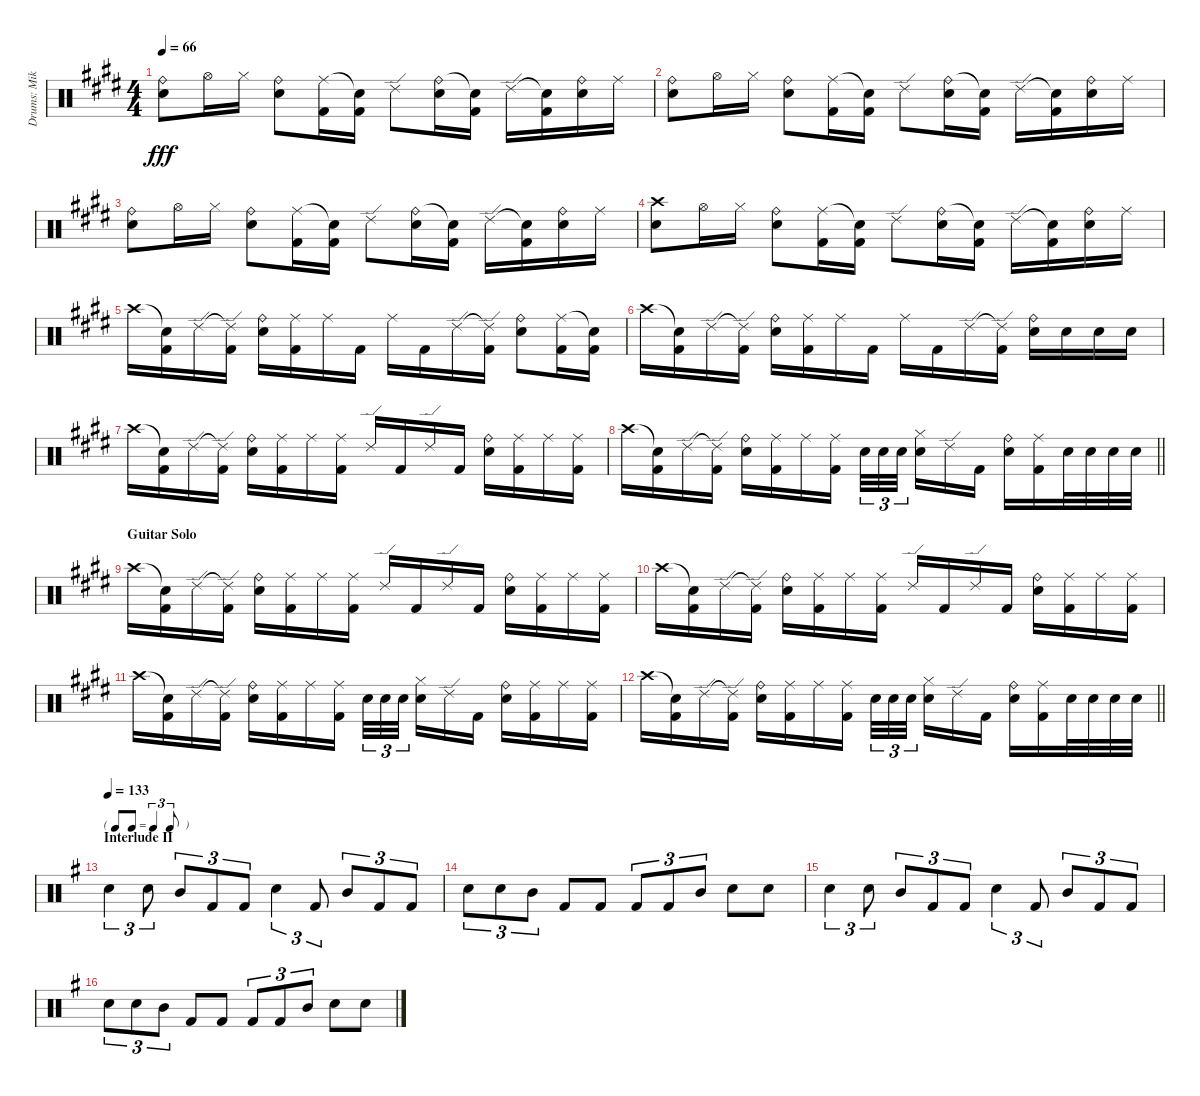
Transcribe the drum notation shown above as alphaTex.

\track ("Drums: Mike" "Drums: Mik") {instrument percussion}
\staff {score}
\articulation defaults
\ts (4 4)
\tempo 66
\clef neutral
\ks e
("Ride (bell)" "Electric Snare (hit)").8{dy fff} "Hi-Hat (open)".16 "Hi-Hat (closed)".16 ("Ride (bell)" "Electric Snare (hit)").8 ("Ride (middle)" "Kick (hit) 2").16 ("Snare (hit)"{t} "Kick (hit) 2").16 "Ride (edge) 2".8 ("Ride (bell)" "Electric Snare (hit)").16 ("Snare (hit)"{t} "Kick (hit) 2").16 "Ride (edge) 2".16 ("Snare (hit)"{t} "Kick (hit) 2").16 ("Ride (bell)" "Electric Snare (hit)").16 "Ride (middle)".16 |
("Ride (bell)" "Electric Snare (hit)").8 "Hi-Hat (open)".16 "Hi-Hat (closed)".16 ("Ride (bell)" "Electric Snare (hit)").8 ("Ride (middle)" "Kick (hit) 2").16 ("Snare (hit)"{t} "Kick (hit) 2").16 "Ride (edge) 2".8 ("Ride (bell)" "Electric Snare (hit)").16 ("Snare (hit)"{t} "Kick (hit) 2").16 "Ride (edge) 2".16 ("Snare (hit)"{t} "Kick (hit) 2").16 ("Ride (bell)" "Electric Snare (hit)").16 "Ride (middle)".16 |
("Ride (bell)" "Electric Snare (hit)").8 "Hi-Hat (open)".16 "Hi-Hat (closed)".16 ("Ride (bell)" "Electric Snare (hit)").8 ("Ride (middle)" "Kick (hit) 2").16 ("Snare (hit)"{t} "Kick (hit) 2").16 "Ride (edge) 2".8 ("Ride (bell)" "Electric Snare (hit)").16 ("Snare (hit)"{t} "Kick (hit) 2").16 "Ride (edge) 2".16 ("Snare (hit)"{t} "Kick (hit) 2").16 ("Ride (bell)" "Electric Snare (hit)").16 "Ride (middle)".16 |
("Crash high (hit)" "Electric Snare (hit)").8 "Hi-Hat (open)".16 "Hi-Hat (closed)".16 ("Ride (bell)" "Electric Snare (hit)").8 ("Ride (middle)" "Kick (hit) 2").16 ("Snare (hit)"{t} "Kick (hit) 2").16 "Ride (edge) 2".8 ("Ride (bell)" "Electric Snare (hit)").16 ("Snare (hit)"{t} "Kick (hit) 2").16 "Ride (edge) 2".16 ("Snare (hit)"{t} "Kick (hit) 2").16 ("Ride (bell)" "Electric Snare (hit)").16 "Ride (middle)".16 |
"Crash high (hit)".16 ("Snare (hit)"{t} "Kick (hit) 2").16 "Ride (edge) 2".16 ("Ride (edge) 2"{t} "Kick (hit) 2").16 ("Ride (bell)" "Electric Snare (hit)").16 ("Ride (middle)" "Kick (hit) 2").16 "Ride (middle)".16 "Kick (hit) 2".16 "Ride (middle)".16 "Kick (hit) 2".16 "Ride (edge) 2".16 ("Ride (edge) 2"{t} "Kick (hit) 2").16 ("Ride (bell)" "Electric Snare (hit)").8 ("Ride (middle)" "Kick (hit) 2").16 ("Snare (hit)"{t} "Kick (hit) 2").16 |
"Crash high (hit)".16 ("Snare (hit)"{t} "Kick (hit) 2").16 "Ride (edge) 2".16 ("Ride (edge) 2"{t} "Kick (hit) 2").16 ("Ride (bell)" "Electric Snare (hit)").16 ("Ride (middle)" "Kick (hit) 2").16 "Ride (middle)".16 "Kick (hit) 2".16 "Ride (middle)".16 "Kick (hit) 2".16 "Ride (edge) 2".16 ("Ride (edge) 2"{t} "Kick (hit) 2").16 ("Ride (bell)" "Electric Snare (hit)").16 "Electric Snare (hit)".16 "Electric Snare (hit)".16 "Electric Snare (hit)".16 |
"Crash high (hit)".16 ("Snare (hit)"{t} "Kick (hit) 2").16 "Ride (edge) 2".16 ("Ride (edge) 2"{t} "Kick (hit) 2").16 ("Ride (bell)" "Electric Snare (hit)").16 ("Ride (middle)" "Kick (hit) 2").16 "Ride (middle)".16 ("Ride (middle)" "Kick (hit) 2").16 "Ride (edge) 2".16 "Kick (hit) 2".16 "Ride (edge) 2".16 "Kick (hit) 2".16 ("Ride (bell)" "Electric Snare (hit)").16 ("Ride (middle)" "Kick (hit) 2").16 "Ride (middle)".16 ("Ride (middle)" "Kick (hit) 2").16 |
\barLineRight lightlight "Crash high (hit)".16
("Snare (hit)"{t} "Kick (hit) 2").16 "Ride (edge) 2".16 ("Ride (edge) 2"{t} "Kick (hit) 2").16 ("Ride (bell)" "Electric Snare (hit)").16 ("Ride (middle)" "Kick (hit) 2").16 "Ride (middle)".16 ("Ride (middle)" "Kick (hit) 2").16 "Electric Snare (hit)".32{tu (3 2)} "Electric Snare (hit)".32{tu (3 2)} "Electric Snare (hit)".32{tu (3 2) beam splitsecondary} ("Hi-Hat (closed)" "Electric Snare (hit)").16 "Ride (edge) 2".16 "Kick (hit) 2".16 ("Ride (bell)" "Electric Snare (hit)").16 ("Ride (middle)" "Kick (hit) 2").16 "Electric Snare (hit)".32 "Electric Snare (hit)".32 "Electric Snare (hit)".32 "Electric Snare (hit)".32 |
\section ("" "Guitar Solo")
"Crash high (hit)".16 ("Snare (hit)"{t} "Kick (hit) 2").16 "Ride (edge) 2".16 ("Ride (edge) 2"{t} "Kick (hit) 2").16 ("Ride (bell)" "Electric Snare (hit)").16 ("Ride (middle)" "Kick (hit) 2").16 "Ride (middle)".16 ("Ride (middle)" "Kick (hit) 2").16 "Ride (edge) 2".16 "Kick (hit) 2".16 "Ride (edge) 2".16 "Kick (hit) 2".16 ("Ride (bell)" "Electric Snare (hit)").16 ("Ride (middle)" "Kick (hit) 2").16 "Ride (middle)".16 ("Ride (middle)" "Kick (hit) 2").16 |
"Crash high (hit)".16 ("Snare (hit)"{t} "Kick (hit) 2").16 "Ride (edge) 2".16 ("Ride (edge) 2"{t} "Kick (hit) 2").16 ("Ride (bell)" "Electric Snare (hit)").16 ("Ride (middle)" "Kick (hit) 2").16 "Ride (middle)".16 ("Ride (middle)" "Kick (hit) 2").16 "Ride (edge) 2".16 "Kick (hit) 2".16 "Ride (edge) 2".16 "Kick (hit) 2".16 ("Ride (bell)" "Electric Snare (hit)").16 ("Ride (middle)" "Kick (hit) 2").16 "Ride (middle)".16 ("Ride (middle)" "Kick (hit) 2").16 |
"Crash high (hit)".16 ("Snare (hit)"{t} "Kick (hit) 2").16 "Ride (edge) 2".16 ("Ride (edge) 2"{t} "Kick (hit) 2").16 ("Ride (bell)" "Electric Snare (hit)").16 ("Ride (middle)" "Kick (hit) 2").16 "Ride (middle)".16 ("Ride (middle)" "Kick (hit) 2").16 "Electric Snare (hit)".32{tu (3 2)} "Electric Snare (hit)".32{tu (3 2)} "Electric Snare (hit)".32{tu (3 2) beam splitsecondary} ("Hi-Hat (closed)" "Electric Snare (hit)").16 "Ride (edge) 2".16 "Kick (hit) 2".16 ("Ride (bell)" "Electric Snare (hit)").16 ("Ride (middle)" "Kick (hit) 2").16 "Ride (middle)".16 ("Ride (middle)" "Kick (hit) 2").16 |
\barLineRight lightlight "Crash high (hit)".16
("Snare (hit)"{t} "Kick (hit) 2").16 "Ride (edge) 2".16 ("Ride (edge) 2"{t} "Kick (hit) 2").16 ("Ride (bell)" "Electric Snare (hit)").16 ("Ride (middle)" "Kick (hit) 2").16 "Ride (middle)".16 ("Ride (middle)" "Kick (hit) 2").16 "Electric Snare (hit)".32{tu (3 2)} "Electric Snare (hit)".32{tu (3 2)} "Electric Snare (hit)".32{tu (3 2) beam splitsecondary} ("Hi-Hat (closed)" "Electric Snare (hit)").16 "Ride (edge) 2".16 "Kick (hit) 2".16 ("Ride (bell)" "Electric Snare (hit)").16 ("Ride (middle)" "Kick (hit) 2").16 "Electric Snare (hit)".32 "Electric Snare (hit)".32 "Electric Snare (hit)".32 "Electric Snare (hit)".32 |
\tf triplet8th
\section ("" "Interlude II")
\tempo 133
\ks g "Electric Snare (hit)".4{tu (3 2)} "Electric Snare (hit)".8{tu (3 2)} "Mid Tom (hit)".8{tu (3 2)} "Kick (hit) 2".8{tu (3 2)} "Kick (hit) 2".8{tu (3 2)} "Electric Snare (hit)".4{tu (3 2)} "Kick (hit) 2".8{tu (3 2)} "Mid Tom (hit)".8{tu (3 2)} "Kick (hit) 2".8{tu (3 2)} "Kick (hit) 2".8{tu (3 2)}
|
"Electric Snare (hit)".8{tu (3 2)} "Electric Snare (hit)".8{tu (3 2)} "Mid Tom (hit)".8{tu (3 2)} "Kick (hit) 2".8 "Kick (hit) 2".8 "Kick (hit) 2".8{tu (3 2)} "Kick (hit) 2".8{tu (3 2)} "Mid Tom (hit)".8{tu (3 2)} "Electric Snare (hit)".8 "Electric Snare (hit)".8 |
"Electric Snare (hit)".4{tu (3 2)} "Electric Snare (hit)".8{tu (3 2)} "Mid Tom (hit)".8{tu (3 2)} "Kick (hit) 2".8{tu (3 2)} "Kick (hit) 2".8{tu (3 2)} "Electric Snare (hit)".4{tu (3 2)} "Kick (hit) 2".8{tu (3 2)} "Mid Tom (hit)".8{tu (3 2)} "Kick (hit) 2".8{tu (3 2)} "Kick (hit) 2".8{tu (3 2)} |
"Electric Snare (hit)".8{tu (3 2)} "Electric Snare (hit)".8{tu (3 2)} "Mid Tom (hit)".8{tu (3 2)} "Kick (hit) 2".8 "Kick (hit) 2".8 "Kick (hit) 2".8{tu (3 2)} "Kick (hit) 2".8{tu (3 2)} "Mid Tom (hit)".8{tu (3 2)} "Electric Snare (hit)".8 "Electric Snare (hit)".8
